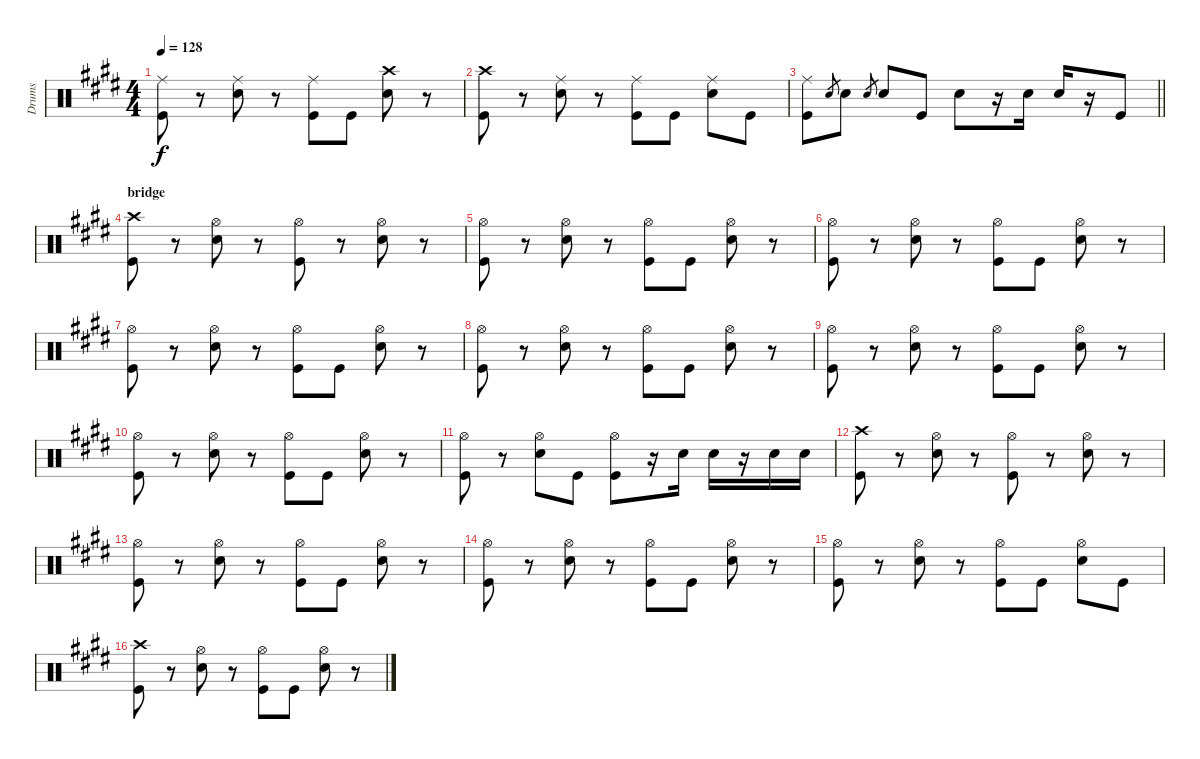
\track ("Drums" "Drums") {instrument percussion}
\staff {score}
\articulation defaults
\ts (4 4)
\tempo 128
\clef neutral
\ks e
("Ride (middle)" "Kick (hit)").8{dy f} r.8 ("Ride (middle)" "Snare (hit) 2").8 r.8 ("Ride (middle)" "Kick (hit)").8 "Kick (hit)".8 ("Crash high (hit)" "Snare (hit) 2").8 r.8 |
("Crash high (hit)" "Kick (hit)").8 r.8 ("Ride (middle)" "Snare (hit) 2").8 r.8 ("Ride (middle)" "Kick (hit)").8 "Kick (hit)".8 ("Ride (middle)" "Snare (hit) 2").8 "Kick (hit)".8 |
\barLineRight lightlight
("Ride (middle)" "Kick (hit)").8 "Snare (hit) 2".8{gr} "Snare (hit) 2".8 "Snare (hit) 2".8{gr} "Snare (hit) 2".8 "Kick (hit)".8 "Snare (hit) 2".8 r.16 "Snare (hit) 2".16 "Snare (hit) 2".16 r.16 "Kick (hit)".8 |
\section ("" "bridge")
("Crash high (hit)" "Kick (hit)").8 r.8 ("Hi-Hat (open)" "Snare (hit) 2").8 r.8 ("Hi-Hat (open)" "Kick (hit)").8 r.8 ("Hi-Hat (open)" "Snare (hit) 2").8 r.8 |
("Hi-Hat (open)" "Kick (hit)").8 r.8 ("Hi-Hat (open)" "Snare (hit) 2").8 r.8 ("Hi-Hat (open)" "Kick (hit)").8 "Kick (hit)".8 ("Hi-Hat (open)" "Snare (hit) 2").8 r.8 |
("Hi-Hat (open)" "Kick (hit)").8 r.8 ("Hi-Hat (open)" "Snare (hit) 2").8 r.8 ("Hi-Hat (open)" "Kick (hit)").8 "Kick (hit)".8 ("Hi-Hat (open)" "Snare (hit) 2").8 r.8 |
("Hi-Hat (open)" "Kick (hit)").8 r.8 ("Hi-Hat (open)" "Snare (hit) 2").8 r.8 ("Hi-Hat (open)" "Kick (hit)").8 "Kick (hit)".8 ("Hi-Hat (open)" "Snare (hit) 2").8 r.8 |
("Hi-Hat (open)" "Kick (hit)").8 r.8 ("Hi-Hat (open)" "Snare (hit) 2").8 r.8 ("Hi-Hat (open)" "Kick (hit)").8 "Kick (hit)".8 ("Hi-Hat (open)" "Snare (hit) 2").8 r.8 |
("Hi-Hat (open)" "Kick (hit)").8 r.8 ("Hi-Hat (open)" "Snare (hit) 2").8 r.8 ("Hi-Hat (open)" "Kick (hit)").8 "Kick (hit)".8 ("Hi-Hat (open)" "Snare (hit) 2").8 r.8 |
("Hi-Hat (open)" "Kick (hit)").8 r.8 ("Hi-Hat (open)" "Snare (hit) 2").8 r.8 ("Hi-Hat (open)" "Kick (hit)").8 "Kick (hit)".8 ("Hi-Hat (open)" "Snare (hit) 2").8 r.8 |
("Hi-Hat (open)" "Kick (hit)").8 r.8 ("Hi-Hat (open)" "Snare (hit) 2").8 "Kick (hit)".8 ("Hi-Hat (open)" "Kick (hit)").8 r.16 "Snare (hit) 2".16 "Snare (hit) 2".16 r.16 "Snare (hit) 2".16 "Snare (hit) 2".16 |
("Crash high (hit)" "Kick (hit)").8 r.8 ("Hi-Hat (open)" "Snare (hit) 2").8 r.8 ("Hi-Hat (open)" "Kick (hit)").8 r.8 ("Hi-Hat (open)" "Snare (hit) 2").8 r.8 |
("Hi-Hat (open)" "Kick (hit)").8 r.8 ("Hi-Hat (open)" "Snare (hit) 2").8 r.8 ("Hi-Hat (open)" "Kick (hit)").8 "Kick (hit)".8 ("Hi-Hat (open)" "Snare (hit) 2").8 r.8 |
("Hi-Hat (open)" "Kick (hit)").8 r.8 ("Hi-Hat (open)" "Snare (hit) 2").8 r.8 ("Hi-Hat (open)" "Kick (hit)").8 "Kick (hit)".8 ("Hi-Hat (open)" "Snare (hit) 2").8 r.8 |
("Hi-Hat (open)" "Kick (hit)").8 r.8 ("Hi-Hat (open)" "Snare (hit) 2").8 r.8 ("Hi-Hat (open)" "Kick (hit)").8 "Kick (hit)".8 ("Hi-Hat (open)" "Snare (hit) 2").8 "Kick (hit)".8 |
("Crash high (hit)" "Kick (hit)").8 r.8 ("Hi-Hat (open)" "Snare (hit) 2").8 r.8 ("Hi-Hat (open)" "Kick (hit)").8 "Kick (hit)".8 ("Hi-Hat (open)" "Snare (hit) 2").8 r.8
